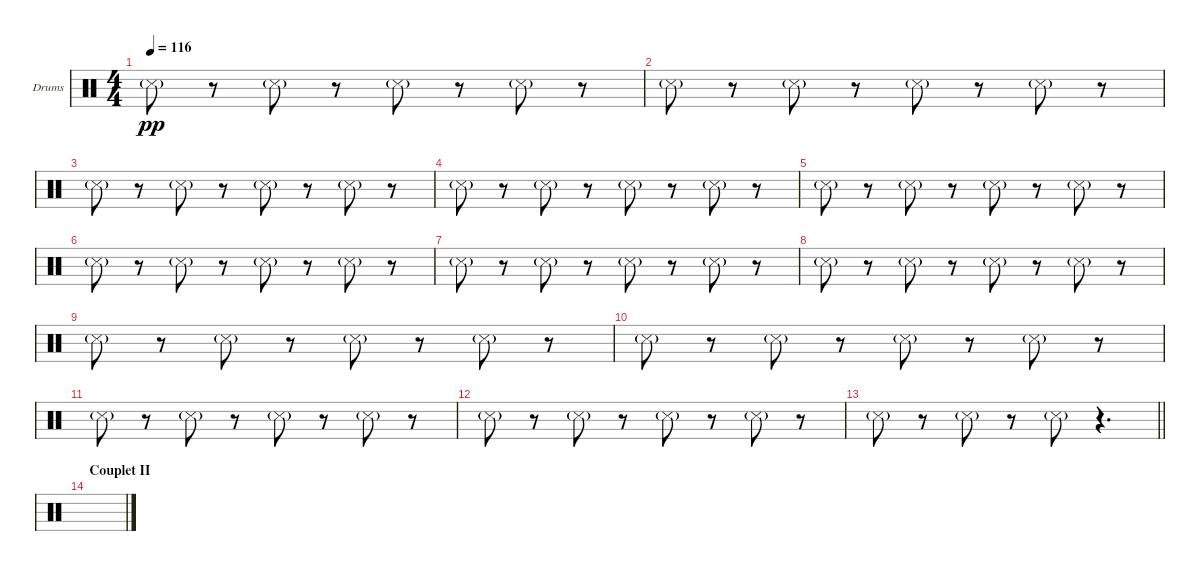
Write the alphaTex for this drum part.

\bracketExtendMode groupsimilarinstruments
\firstSystemTrackNameOrientation horizontal
\otherSystemsTrackNameOrientation horizontal
\track ("Clock" "Drums") {multiBarRest instrument percussion}
\staff {score}
\articulation defaults
\ts (4 4)
\tempo 116
\clef neutral
\ks c "Snare (side stick) 3"{g}.8{dy pp}
r.8 "Snare (side stick) 3"{g}.8 r.8 "Snare (side stick) 3"{g}.8 r.8 "Snare (side stick) 3"{g}.8 r.8 |
"Snare (side stick) 3"{g}.8 r.8 "Snare (side stick) 3"{g}.8 r.8 "Snare (side stick) 3"{g}.8 r.8 "Snare (side stick) 3"{g}.8 r.8 |
"Snare (side stick) 3"{g}.8 r.8 "Snare (side stick) 3"{g}.8 r.8 "Snare (side stick) 3"{g}.8 r.8 "Snare (side stick) 3"{g}.8 r.8 |
"Snare (side stick) 3"{g}.8 r.8 "Snare (side stick) 3"{g}.8 r.8 "Snare (side stick) 3"{g}.8 r.8 "Snare (side stick) 3"{g}.8 r.8 |
"Snare (side stick) 3"{g}.8 r.8 "Snare (side stick) 3"{g}.8 r.8 "Snare (side stick) 3"{g}.8 r.8 "Snare (side stick) 3"{g}.8 r.8 |
"Snare (side stick) 3"{g}.8 r.8 "Snare (side stick) 3"{g}.8 r.8 "Snare (side stick) 3"{g}.8 r.8 "Snare (side stick) 3"{g}.8 r.8 |
"Snare (side stick) 3"{g}.8 r.8 "Snare (side stick) 3"{g}.8 r.8 "Snare (side stick) 3"{g}.8 r.8 "Snare (side stick) 3"{g}.8 r.8 |
"Snare (side stick) 3"{g}.8 r.8 "Snare (side stick) 3"{g}.8 r.8 "Snare (side stick) 3"{g}.8 r.8 "Snare (side stick) 3"{g}.8 r.8 |
"Snare (side stick) 3"{g}.8 r.8 "Snare (side stick) 3"{g}.8 r.8 "Snare (side stick) 3"{g}.8 r.8 "Snare (side stick) 3"{g}.8 r.8 |
"Snare (side stick) 3"{g}.8 r.8 "Snare (side stick) 3"{g}.8 r.8 "Snare (side stick) 3"{g}.8 r.8 "Snare (side stick) 3"{g}.8 r.8 |
"Snare (side stick) 3"{g}.8 r.8 "Snare (side stick) 3"{g}.8 r.8 "Snare (side stick) 3"{g}.8 r.8 "Snare (side stick) 3"{g}.8 r.8 |
"Snare (side stick) 3"{g}.8 r.8 "Snare (side stick) 3"{g}.8 r.8 "Snare (side stick) 3"{g}.8 r.8 "Snare (side stick) 3"{g}.8 r.8 |
\barLineRight lightlight "Snare (side stick) 3"{g}.8
r.8 "Snare (side stick) 3"{g}.8 r.8 "Snare (side stick) 3"{g}.8 r.4{d} |
\section ("" "Couplet II")
